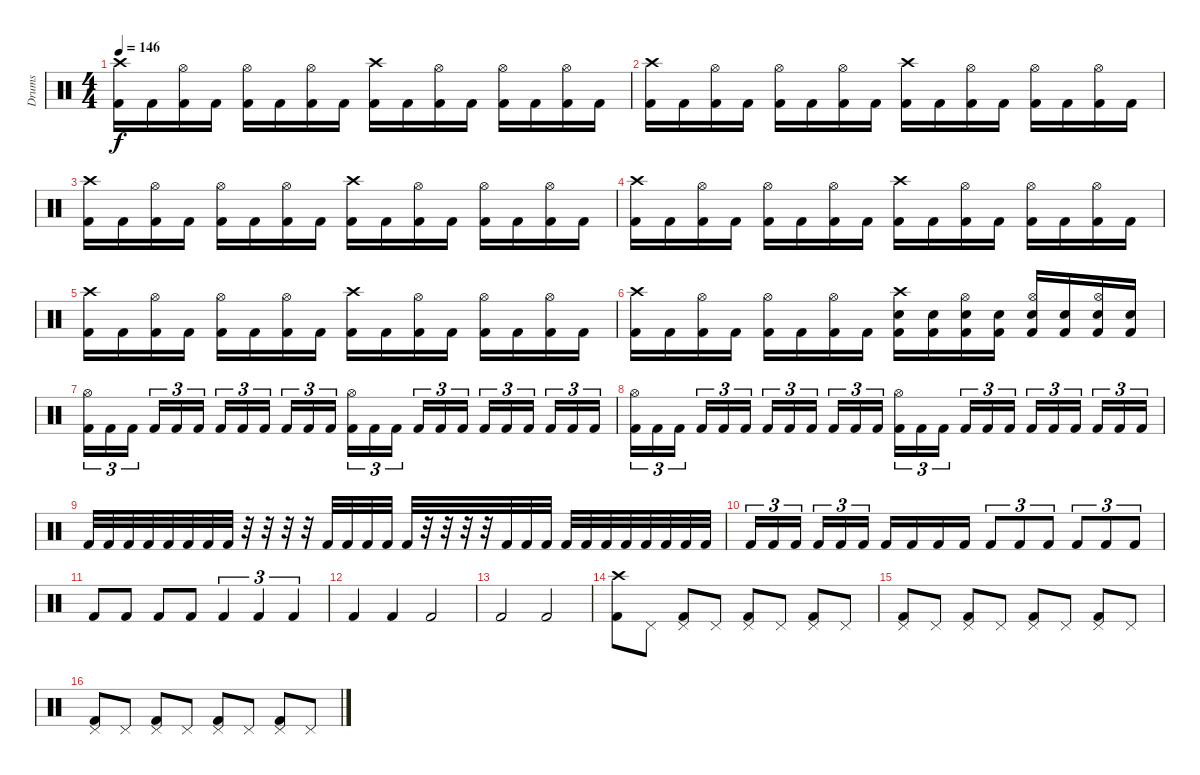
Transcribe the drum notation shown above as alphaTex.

\track ("Drums" "Drums") {instrument percussion}
\staff {score}
\articulation defaults
\ts (4 4)
\tempo 146
\clef neutral
\ks c
("Crash high (hit)" "Kick (hit) 2").16{dy f} "Kick (hit) 2".16 ("Hi-Hat (open)" "Kick (hit) 2").16 "Kick (hit) 2".16 ("Hi-Hat (open)" "Kick (hit) 2").16 "Kick (hit) 2".16 ("Hi-Hat (open)" "Kick (hit) 2").16 "Kick (hit) 2".16 ("Crash high (hit)" "Kick (hit) 2").16 "Kick (hit) 2".16 ("Hi-Hat (open)" "Kick (hit) 2").16 "Kick (hit) 2".16 ("Hi-Hat (open)" "Kick (hit) 2").16 "Kick (hit) 2".16 ("Hi-Hat (open)" "Kick (hit) 2").16 "Kick (hit) 2".16 |
("Crash high (hit)" "Kick (hit) 2").16 "Kick (hit) 2".16 ("Hi-Hat (open)" "Kick (hit) 2").16 "Kick (hit) 2".16 ("Hi-Hat (open)" "Kick (hit) 2").16 "Kick (hit) 2".16 ("Hi-Hat (open)" "Kick (hit) 2").16 "Kick (hit) 2".16 ("Crash high (hit)" "Kick (hit) 2").16 "Kick (hit) 2".16 ("Hi-Hat (open)" "Kick (hit) 2").16 "Kick (hit) 2".16 ("Hi-Hat (open)" "Kick (hit) 2").16 "Kick (hit) 2".16 ("Hi-Hat (open)" "Kick (hit) 2").16 "Kick (hit) 2".16 |
("Crash high (hit)" "Kick (hit) 2").16 "Kick (hit) 2".16 ("Hi-Hat (open)" "Kick (hit) 2").16 "Kick (hit) 2".16 ("Hi-Hat (open)" "Kick (hit) 2").16 "Kick (hit) 2".16 ("Hi-Hat (open)" "Kick (hit) 2").16 "Kick (hit) 2".16 ("Crash high (hit)" "Kick (hit) 2").16 "Kick (hit) 2".16 ("Hi-Hat (open)" "Kick (hit) 2").16 "Kick (hit) 2".16 ("Hi-Hat (open)" "Kick (hit) 2").16 "Kick (hit) 2".16 ("Hi-Hat (open)" "Kick (hit) 2").16 "Kick (hit) 2".16 |
("Crash high (hit)" "Kick (hit) 2").16 "Kick (hit) 2".16 ("Hi-Hat (open)" "Kick (hit) 2").16 "Kick (hit) 2".16 ("Hi-Hat (open)" "Kick (hit) 2").16 "Kick (hit) 2".16 ("Hi-Hat (open)" "Kick (hit) 2").16 "Kick (hit) 2".16 ("Crash high (hit)" "Kick (hit) 2").16 "Kick (hit) 2".16 ("Hi-Hat (open)" "Kick (hit) 2").16 "Kick (hit) 2".16 ("Hi-Hat (open)" "Kick (hit) 2").16 "Kick (hit) 2".16 ("Hi-Hat (open)" "Kick (hit) 2").16 "Kick (hit) 2".16 |
("Crash high (hit)" "Kick (hit) 2").16 "Kick (hit) 2".16 ("Hi-Hat (open)" "Kick (hit) 2").16 "Kick (hit) 2".16 ("Hi-Hat (open)" "Kick (hit) 2").16 "Kick (hit) 2".16 ("Hi-Hat (open)" "Kick (hit) 2").16 "Kick (hit) 2".16 ("Crash high (hit)" "Kick (hit) 2").16 "Kick (hit) 2".16 ("Hi-Hat (open)" "Kick (hit) 2").16 "Kick (hit) 2".16 ("Hi-Hat (open)" "Kick (hit) 2").16 "Kick (hit) 2".16 ("Hi-Hat (open)" "Kick (hit) 2").16 "Kick (hit) 2".16 |
("Crash high (hit)" "Kick (hit) 2").16 "Kick (hit) 2".16 ("Hi-Hat (open)" "Kick (hit) 2").16 "Kick (hit) 2".16 ("Hi-Hat (open)" "Kick (hit) 2").16 "Kick (hit) 2".16 ("Hi-Hat (open)" "Kick (hit) 2").16 "Kick (hit) 2".16 ("Crash high (hit)" "Snare (hit) 2" "Kick (hit) 2").16 ("Snare (hit) 2" "Kick (hit) 2").16 ("Hi-Hat (open)" "Snare (hit) 2" "Kick (hit) 2").16 ("Snare (hit) 2" "Kick (hit) 2").16 ("Hi-Hat (open)" "Snare (hit) 2" "Kick (hit) 2").16 ("Snare (hit) 2" "Kick (hit) 2").16 ("Hi-Hat (open)" "Snare (hit) 2" "Kick (hit) 2").16 ("Snare (hit) 2" "Kick (hit) 2").16 |
("Hi-Hat (open)" "Kick (hit) 2").16{tu (3 2)} "Kick (hit) 2".16{tu (3 2)} "Kick (hit) 2".16{tu (3 2) beam splitsecondary} "Kick (hit) 2".16{tu (3 2)} "Kick (hit) 2".16{tu (3 2)} "Kick (hit) 2".16{tu (3 2)} "Kick (hit) 2".16{tu (3 2)} "Kick (hit) 2".16{tu (3 2)} "Kick (hit) 2".16{tu (3 2) beam splitsecondary} "Kick (hit) 2".16{tu (3 2)} "Kick (hit) 2".16{tu (3 2)} "Kick (hit) 2".16{tu (3 2)} ("Hi-Hat (open)" "Kick (hit) 2").16{tu (3 2)} "Kick (hit) 2".16{tu (3 2)} "Kick (hit) 2".16{tu (3 2) beam splitsecondary} "Kick (hit) 2".16{tu (3 2)} "Kick (hit) 2".16{tu (3 2)} "Kick (hit) 2".16{tu (3 2)} "Kick (hit) 2".16{tu (3 2)} "Kick (hit) 2".16{tu (3 2)} "Kick (hit) 2".16{tu (3 2) beam splitsecondary} "Kick (hit) 2".16{tu (3 2)} "Kick (hit) 2".16{tu (3 2)} "Kick (hit) 2".16{tu (3 2)} |
("Hi-Hat (open)" "Kick (hit) 2").16{tu (3 2)} "Kick (hit) 2".16{tu (3 2)} "Kick (hit) 2".16{tu (3 2) beam splitsecondary} "Kick (hit) 2".16{tu (3 2)} "Kick (hit) 2".16{tu (3 2)} "Kick (hit) 2".16{tu (3 2)} "Kick (hit) 2".16{tu (3 2)} "Kick (hit) 2".16{tu (3 2)} "Kick (hit) 2".16{tu (3 2) beam splitsecondary} "Kick (hit) 2".16{tu (3 2)} "Kick (hit) 2".16{tu (3 2)} "Kick (hit) 2".16{tu (3 2)} ("Hi-Hat (open)" "Kick (hit) 2").16{tu (3 2)} "Kick (hit) 2".16{tu (3 2)} "Kick (hit) 2".16{tu (3 2) beam splitsecondary} "Kick (hit) 2".16{tu (3 2)} "Kick (hit) 2".16{tu (3 2)} "Kick (hit) 2".16{tu (3 2)} "Kick (hit) 2".16{tu (3 2)} "Kick (hit) 2".16{tu (3 2)} "Kick (hit) 2".16{tu (3 2) beam splitsecondary} "Kick (hit) 2".16{tu (3 2)} "Kick (hit) 2".16{tu (3 2)} "Kick (hit) 2".16{tu (3 2)} |
"Kick (hit) 2".32 "Kick (hit) 2".32 "Kick (hit) 2".32 "Kick (hit) 2".32 "Kick (hit) 2".32 "Kick (hit) 2".32 "Kick (hit) 2".32 "Kick (hit) 2".32 r.32 r.32 r.32 r.32 "Kick (hit) 2".32 "Kick (hit) 2".32 "Kick (hit) 2".32 "Kick (hit) 2".32 "Kick (hit) 2".32 r.32 r.32 r.32 r.32 "Kick (hit) 2".32 "Kick (hit) 2".32 "Kick (hit) 2".32 "Kick (hit) 2".32 "Kick (hit) 2".32 "Kick (hit) 2".32 "Kick (hit) 2".32 "Kick (hit) 2".32 "Kick (hit) 2".32 "Kick (hit) 2".32 "Kick (hit) 2".32 |
"Kick (hit) 2".16{tu (3 2)} "Kick (hit) 2".16{tu (3 2)} "Kick (hit) 2".16{tu (3 2) beam splitsecondary} "Kick (hit) 2".16{tu (3 2)} "Kick (hit) 2".16{tu (3 2)} "Kick (hit) 2".16{tu (3 2)} "Kick (hit) 2".16 "Kick (hit) 2".16 "Kick (hit) 2".16 "Kick (hit) 2".16 "Kick (hit) 2".8{tu (3 2)} "Kick (hit) 2".8{tu (3 2)} "Kick (hit) 2".8{tu (3 2)} "Kick (hit) 2".8{tu (3 2)} "Kick (hit) 2".8{tu (3 2)} "Kick (hit) 2".8{tu (3 2)} |
"Kick (hit) 2".8 "Kick (hit) 2".8 "Kick (hit) 2".8 "Kick (hit) 2".8 "Kick (hit) 2".4{tu (3 2)} "Kick (hit) 2".4{tu (3 2)} "Kick (hit) 2".4{tu (3 2)} |
"Kick (hit) 2".4 "Kick (hit) 2".4 "Kick (hit) 2".2 |
"Kick (hit) 2".2 "Kick (hit) 2".2 |
("Crash high (hit)" "Kick (hit) 2").8 "Pedal Hi-Hat (hit)".8 ("Pedal Hi-Hat (hit)" "Kick (hit) 2").8 "Pedal Hi-Hat (hit)".8 ("Pedal Hi-Hat (hit)" "Kick (hit) 2").8 "Pedal Hi-Hat (hit)".8 ("Pedal Hi-Hat (hit)" "Kick (hit) 2").8 "Pedal Hi-Hat (hit)".8 |
("Pedal Hi-Hat (hit)" "Kick (hit) 2").8 "Pedal Hi-Hat (hit)".8 ("Pedal Hi-Hat (hit)" "Kick (hit) 2").8 "Pedal Hi-Hat (hit)".8 ("Pedal Hi-Hat (hit)" "Kick (hit) 2").8 "Pedal Hi-Hat (hit)".8 ("Pedal Hi-Hat (hit)" "Kick (hit) 2").8 "Pedal Hi-Hat (hit)".8 |
("Pedal Hi-Hat (hit)" "Kick (hit) 2").8 "Pedal Hi-Hat (hit)".8 ("Pedal Hi-Hat (hit)" "Kick (hit) 2").8 "Pedal Hi-Hat (hit)".8 ("Pedal Hi-Hat (hit)" "Kick (hit) 2").8 "Pedal Hi-Hat (hit)".8 ("Pedal Hi-Hat (hit)" "Kick (hit) 2").8 "Pedal Hi-Hat (hit)".8
